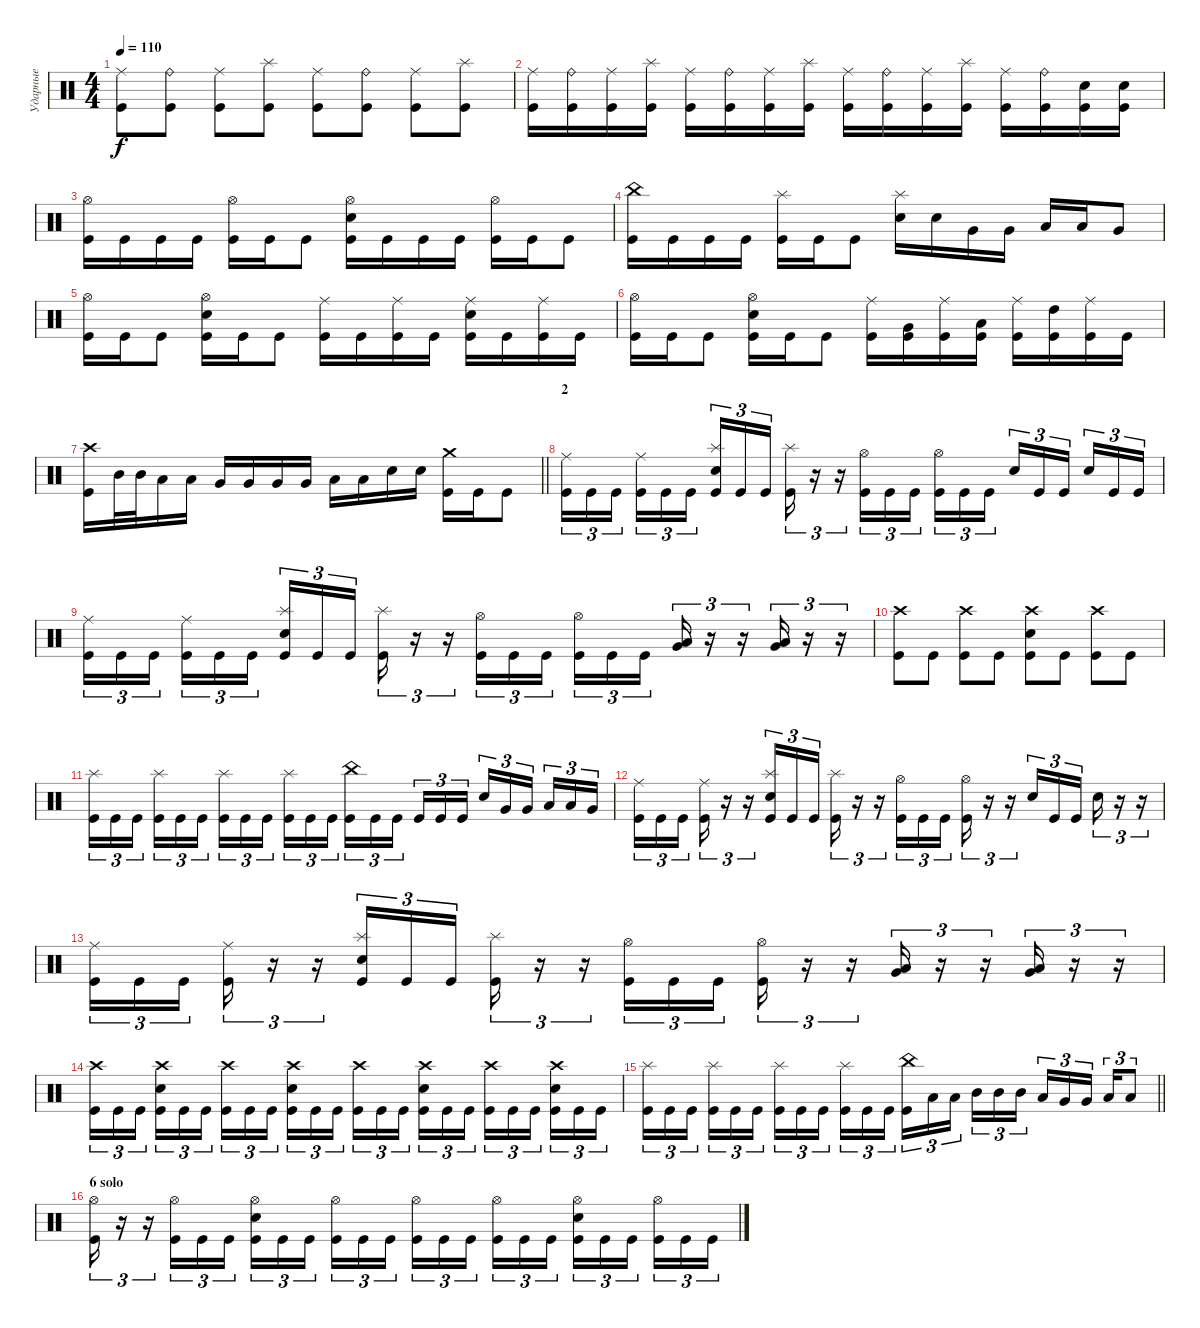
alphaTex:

\track ("Ударные" "Ударные") {instrument percussion}
\staff {score}
\articulation defaults
\ts (4 4)
\tempo 110
\clef neutral
\ks c
("Ride (middle)" "Kick (hit)").8{dy f} ("Ride (bell)" "Kick (hit)").8 ("Ride (middle)" "Kick (hit)").8 ("Splash (hit)" "Kick (hit)").8 ("Ride (middle)" "Kick (hit)").8 ("Ride (bell)" "Kick (hit)").8 ("Ride (middle)" "Kick (hit)").8 ("Splash (hit)" "Kick (hit)").8 |
("Ride (middle)" "Kick (hit)").16 ("Ride (bell)" "Kick (hit)").16 ("Ride (middle)" "Kick (hit)").16 ("Splash (hit)" "Kick (hit)").16 ("Ride (middle)" "Kick (hit)").16 ("Ride (bell)" "Kick (hit)").16 ("Ride (middle)" "Kick (hit)").16 ("Splash (hit)" "Kick (hit)").16 ("Ride (middle)" "Kick (hit)").16 ("Ride (bell)" "Kick (hit)").16 ("Ride (middle)" "Kick (hit)").16 ("Splash (hit)" "Kick (hit)").16 ("Ride (middle)" "Kick (hit)").16 ("Ride (bell)" "Kick (hit)").16 ("Electric Snare (hit)" "Kick (hit)").16 ("Electric Snare (hit)" "Kick (hit)").16 |
("Hi-Hat (open)" "Kick (hit)").16 "Kick (hit)".16 "Kick (hit)".16 "Kick (hit)".16 ("Hi-Hat (open)" "Kick (hit)").16 "Kick (hit)".16 "Kick (hit)".8 ("Hi-Hat (open)" "Electric Snare (hit)" "Kick (hit)").16 "Kick (hit)".16 "Kick (hit)".16 "Kick (hit)".16 ("Hi-Hat (open)" "Kick (hit)").16 "Kick (hit)".16 "Kick (hit)".8 |
("China (hit)" "Kick (hit)").16 "Kick (hit)".16 "Kick (hit)".16 "Kick (hit)".16 ("Splash (hit)" "Kick (hit)").16 "Kick (hit)".16 "Kick (hit)".8 ("Splash (hit)" "Electric Snare (hit)").16 "Electric Snare (hit)".16 "Very Low Tom (hit)".16 "Very Low Tom (hit)".16 "Low Tom (hit)".16 "Low Tom (hit)".16 "Very Low Tom (hit)".8 |
("Hi-Hat (open)" "Kick (hit)").16 "Kick (hit)".16 "Kick (hit)".8 ("Hi-Hat (open)" "Electric Snare (hit)" "Kick (hit)").16 "Kick (hit)".16 "Kick (hit)".8 ("Ride (middle)" "Kick (hit)").16 "Kick (hit)".16 ("Ride (middle)" "Kick (hit)").16 "Kick (hit)".16 ("Ride (middle)" "Electric Snare (hit)" "Kick (hit)").16 "Kick (hit)".16 ("Ride (middle)" "Kick (hit)").16 "Kick (hit)".16 |
("Hi-Hat (open)" "Kick (hit)").16 "Kick (hit)".16 "Kick (hit)".8 ("Hi-Hat (open)" "Electric Snare (hit)" "Kick (hit)").16 "Kick (hit)".16 "Kick (hit)".8 ("Ride (middle)" "Kick (hit)").16 ("Very Low Tom (hit)" "Kick (hit)").16 ("Ride (middle)" "Kick (hit)").16 ("Low Tom (hit)" "Kick (hit)").16 ("Ride (middle)" "Kick (hit)").16 ("High Tom (hit)" "Kick (hit)").16 ("Ride (middle)" "Kick (hit)").16 "Kick (hit)".16 |
\barLineRight lightlight
("Crash high (hit)" "Kick (hit)").16 "Mid Tom (hit)".32 "Mid Tom (hit)".32 "Low Tom (hit)".16 "Low Tom (hit)".16 "Very Low Tom (hit)".16 "Very Low Tom (hit)".16 "Very Low Tom (hit)".16 "Very Low Tom (hit)".16 "Low Floor Tom (hit)".16 "Low Floor Tom (hit)".16 "Electric Snare (hit)".16 "Electric Snare (hit)".16 ("Crash medium (hit)" "Kick (hit)").16 "Kick (hit)".16 "Kick (hit)".8 |
\section ("" "2")
("Ride (middle)" "Kick (hit)").16{tu (3 2)} "Kick (hit)".16{tu (3 2)} "Kick (hit)".16{tu (3 2) beam splitsecondary} ("Ride (middle)" "Kick (hit)").16{tu (3 2)} "Kick (hit)".16{tu (3 2)} "Kick (hit)".16{tu (3 2)} ("Splash (hit)" "Electric Snare (hit)" "Kick (hit)").16{tu (3 2)} "Kick (hit)".16{tu (3 2)} "Kick (hit)".16{tu (3 2) beam splitsecondary} ("Splash (hit)" "Kick (hit)").16{tu (3 2)} r.16{tu (3 2)} r.16{tu (3 2)} ("Hi-Hat (open)" "Kick (hit)").16{tu (3 2)} "Kick (hit)".16{tu (3 2)} "Kick (hit)".16{tu (3 2) beam splitsecondary} ("Hi-Hat (open)" "Kick (hit)").16{tu (3 2)} "Kick (hit)".16{tu (3 2)} "Kick (hit)".16{tu (3 2)} "Electric Snare (hit)".16{tu (3 2)} "Kick (hit)".16{tu (3 2)} "Kick (hit)".16{tu (3 2) beam splitsecondary} "Electric Snare (hit)".16{tu (3 2)} "Kick (hit)".16{tu (3 2)} "Kick (hit)".16{tu (3 2)} |
("Ride (middle)" "Kick (hit)").16{tu (3 2)} "Kick (hit)".16{tu (3 2)} "Kick (hit)".16{tu (3 2) beam splitsecondary} ("Ride (middle)" "Kick (hit)").16{tu (3 2)} "Kick (hit)".16{tu (3 2)} "Kick (hit)".16{tu (3 2)} ("Splash (hit)" "Electric Snare (hit)" "Kick (hit)").16{tu (3 2)} "Kick (hit)".16{tu (3 2)} "Kick (hit)".16{tu (3 2) beam splitsecondary} ("Splash (hit)" "Kick (hit)").16{tu (3 2)} r.16{tu (3 2)} r.16{tu (3 2)} ("Hi-Hat (open)" "Kick (hit)").16{tu (3 2)} "Kick (hit)".16{tu (3 2)} "Kick (hit)".16{tu (3 2) beam splitsecondary} ("Hi-Hat (open)" "Kick (hit)").16{tu (3 2)} "Kick (hit)".16{tu (3 2)} "Kick (hit)".16{tu (3 2)} ("Very Low Tom (hit)" "Low Tom (hit)").16{tu (3 2)} r.16{tu (3 2)} r.16{tu (3 2)} ("Very Low Tom (hit)" "Low Tom (hit)").16{tu (3 2)} r.16{tu (3 2)} r.16{tu (3 2)} |
("Crash high (hit)" "Kick (hit)").8 "Kick (hit)".8 ("Crash high (hit)" "Kick (hit)").8 "Kick (hit)".8 ("Crash high (hit)" "Electric Snare (hit)" "Kick (hit)").8 "Kick (hit)".8 ("Crash high (hit)" "Kick (hit)").8 "Kick (hit)".8 |
("Splash (hit)" "Kick (hit)").16{tu (3 2)} "Kick (hit)".16{tu (3 2)} "Kick (hit)".16{tu (3 2) beam splitsecondary} ("Splash (hit)" "Kick (hit)").16{tu (3 2)} "Kick (hit)".16{tu (3 2)} "Kick (hit)".16{tu (3 2)} ("Splash (hit)" "Kick (hit)").16{tu (3 2)} "Kick (hit)".16{tu (3 2)} "Kick (hit)".16{tu (3 2) beam splitsecondary} ("Splash (hit)" "Kick (hit)").16{tu (3 2)} "Kick (hit)".16{tu (3 2)} "Kick (hit)".16{tu (3 2)} ("China (hit)" "Kick (hit)").16{tu (3 2)} "Kick (hit)".16{tu (3 2)} "Kick (hit)".16{tu (3 2) beam splitsecondary} "Kick (hit)".16{tu (3 2)} "Kick (hit)".16{tu (3 2)} "Kick (hit)".16{tu (3 2)} "Electric Snare (hit)".16{tu (3 2)} "Very Low Tom (hit)".16{tu (3 2)} "Very Low Tom (hit)".16{tu (3 2) beam splitsecondary} "Low Tom (hit)".16{tu (3 2)} "Low Tom (hit)".16{tu (3 2)} "Very Low Tom (hit)".16{tu (3 2)} |
("Ride (middle)" "Kick (hit)").16{tu (3 2)} "Kick (hit)".16{tu (3 2)} "Kick (hit)".16{tu (3 2) beam splitsecondary} ("Ride (middle)" "Kick (hit)").16{tu (3 2)} r.16{tu (3 2)} r.16{tu (3 2)} ("Splash (hit)" "Electric Snare (hit)" "Kick (hit)").16{tu (3 2)} "Kick (hit)".16{tu (3 2)} "Kick (hit)".16{tu (3 2) beam splitsecondary} ("Splash (hit)" "Kick (hit)").16{tu (3 2)} r.16{tu (3 2)} r.16{tu (3 2)} ("Hi-Hat (open)" "Kick (hit)").16{tu (3 2)} "Kick (hit)".16{tu (3 2)} "Kick (hit)".16{tu (3 2) beam splitsecondary} ("Hi-Hat (open)" "Kick (hit)").16{tu (3 2)} r.16{tu (3 2)} r.16{tu (3 2)} "Electric Snare (hit)".16{tu (3 2)} "Kick (hit)".16{tu (3 2)} "Kick (hit)".16{tu (3 2) beam splitsecondary} "Electric Snare (hit)".16{tu (3 2)} r.16{tu (3 2)} r.16{tu (3 2)} |
("Ride (middle)" "Kick (hit)").16{tu (3 2)} "Kick (hit)".16{tu (3 2)} "Kick (hit)".16{tu (3 2) beam splitsecondary} ("Ride (middle)" "Kick (hit)").16{tu (3 2)} r.16{tu (3 2)} r.16{tu (3 2)} ("Splash (hit)" "Electric Snare (hit)" "Kick (hit)").16{tu (3 2)} "Kick (hit)".16{tu (3 2)} "Kick (hit)".16{tu (3 2) beam splitsecondary} ("Splash (hit)" "Kick (hit)").16{tu (3 2)} r.16{tu (3 2)} r.16{tu (3 2)} ("Hi-Hat (open)" "Kick (hit)").16{tu (3 2)} "Kick (hit)".16{tu (3 2)} "Kick (hit)".16{tu (3 2) beam splitsecondary} ("Hi-Hat (open)" "Kick (hit)").16{tu (3 2)} r.16{tu (3 2)} r.16{tu (3 2)} ("Very Low Tom (hit)" "Low Tom (hit)").16{tu (3 2)} r.16{tu (3 2)} r.16{tu (3 2)} ("Very Low Tom (hit)" "Low Tom (hit)").16{tu (3 2)} r.16{tu (3 2)} r.16{tu (3 2)} |
("Crash high (hit)" "Kick (hit)").16{tu (3 2)} "Kick (hit)".16{tu (3 2)} "Kick (hit)".16{tu (3 2) beam splitsecondary} ("Crash high (hit)" "Electric Snare (hit)" "Kick (hit)").16{tu (3 2)} "Kick (hit)".16{tu (3 2)} "Kick (hit)".16{tu (3 2)} ("Crash high (hit)" "Kick (hit)").16{tu (3 2)} "Kick (hit)".16{tu (3 2)} "Kick (hit)".16{tu (3 2) beam splitsecondary} ("Crash high (hit)" "Electric Snare (hit)" "Kick (hit)").16{tu (3 2)} "Kick (hit)".16{tu (3 2)} "Kick (hit)".16{tu (3 2)} ("Crash high (hit)" "Kick (hit)").16{tu (3 2)} "Kick (hit)".16{tu (3 2)} "Kick (hit)".16{tu (3 2) beam splitsecondary} ("Crash high (hit)" "Electric Snare (hit)" "Kick (hit)").16{tu (3 2)} "Kick (hit)".16{tu (3 2)} "Kick (hit)".16{tu (3 2)} ("Crash high (hit)" "Kick (hit)").16{tu (3 2)} "Kick (hit)".16{tu (3 2)} "Kick (hit)".16{tu (3 2) beam splitsecondary} ("Crash high (hit)" "Electric Snare (hit)" "Kick (hit)").16{tu (3 2)} "Kick (hit)".16{tu (3 2)} "Kick (hit)".16{tu (3 2)} |
\barLineRight lightlight
("Splash (hit)" "Kick (hit)").16{tu (3 2)} "Kick (hit)".16{tu (3 2)} "Kick (hit)".16{tu (3 2) beam splitsecondary} ("Splash (hit)" "Kick (hit)").16{tu (3 2)} "Kick (hit)".16{tu (3 2)} "Kick (hit)".16{tu (3 2)} ("Splash (hit)" "Kick (hit)").16{tu (3 2)} "Kick (hit)".16{tu (3 2)} "Kick (hit)".16{tu (3 2) beam splitsecondary} ("Splash (hit)" "Kick (hit)").16{tu (3 2)} "Kick (hit)".16{tu (3 2)} "Kick (hit)".16{tu (3 2)} ("China (hit)" "Kick (hit)").16{tu (3 2)} "Low Tom (hit)".16{tu (3 2)} "Low Tom (hit)".16{tu (3 2) beam splitsecondary} "Mid Tom (hit)".16{tu (3 2)} "Mid Tom (hit)".16{tu (3 2)} "Mid Tom (hit)".16{tu (3 2)} "Low Tom (hit)".16{tu (3 2)} "Very Low Tom (hit)".16{tu (3 2)} "Very Low Tom (hit)".16{tu (3 2) beam splitsecondary} "Low Floor Tom (hit)".16{tu (3 2)} "Low Floor Tom (hit)".8{tu (3 2)} |
\section ("" "6 solo")
("Hi-Hat (open)" "Kick (hit)").16{tu (3 2)} r.16{tu (3 2)} r.16{tu (3 2)} ("Hi-Hat (open)" "Kick (hit)").16{tu (3 2)} "Kick (hit)".16{tu (3 2)} "Kick (hit)".16{tu (3 2)} ("Hi-Hat (open)" "Electric Snare (hit)" "Kick (hit)").16{tu (3 2)} "Kick (hit)".16{tu (3 2)} "Kick (hit)".16{tu (3 2) beam splitsecondary} ("Hi-Hat (open)" "Kick (hit)").16{tu (3 2)} "Kick (hit)".16{tu (3 2)} "Kick (hit)".16{tu (3 2)} ("Hi-Hat (open)" "Kick (hit)").16{tu (3 2)} "Kick (hit)".16{tu (3 2)} "Kick (hit)".16{tu (3 2) beam splitsecondary} ("Hi-Hat (open)" "Kick (hit)").16{tu (3 2)} "Kick (hit)".16{tu (3 2)} "Kick (hit)".16{tu (3 2)} ("Hi-Hat (open)" "Electric Snare (hit)" "Kick (hit)").16{tu (3 2)} "Kick (hit)".16{tu (3 2)} "Kick (hit)".16{tu (3 2) beam splitsecondary} ("Hi-Hat (open)" "Kick (hit)").16{tu (3 2)} "Kick (hit)".16{tu (3 2)} "Kick (hit)".16{tu (3 2)}
